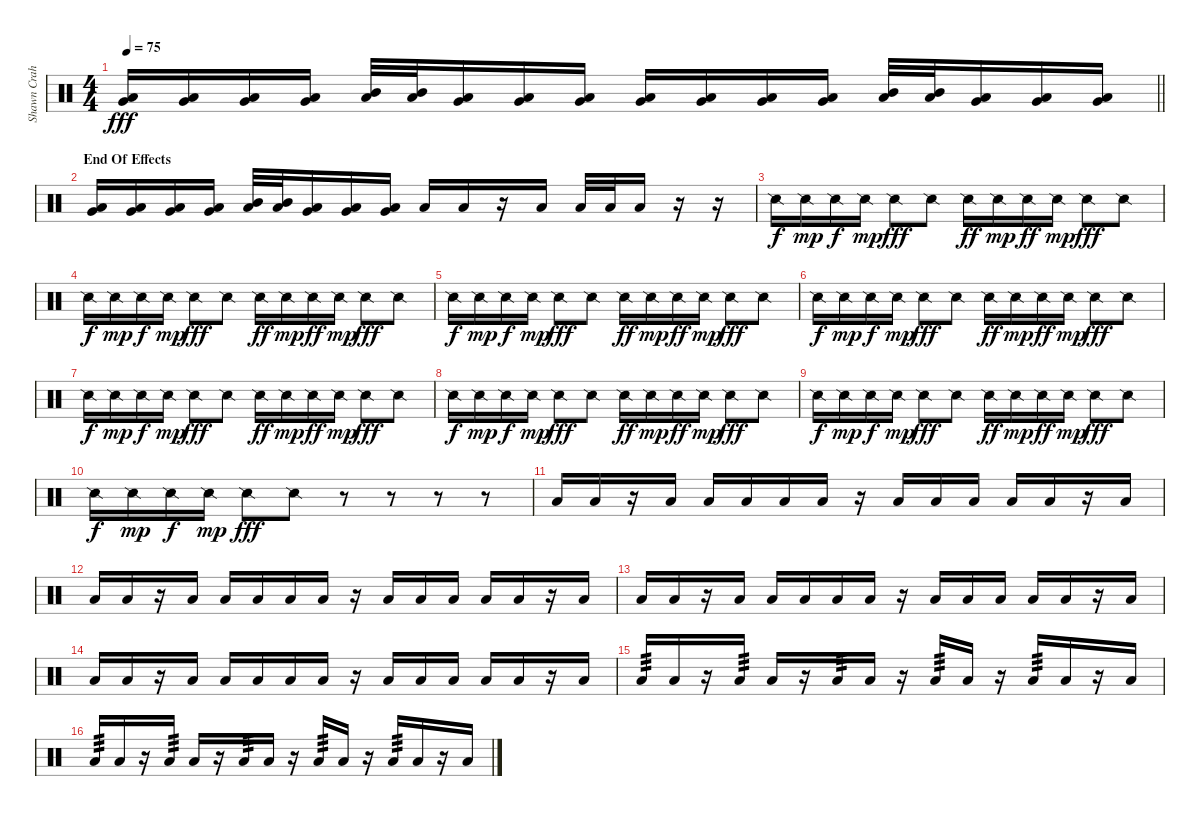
\track ("Shawn Crahan" "Shawn Crah") {instrument percussion}
\staff {score}
\articulation defaults
\ts (4 4)
\tempo 75
\clef neutral
\barLineRight lightlight
\ks c
("Very Low Tom (hit)" "Low Floor Tom (hit)").16{bd 60 dy fff} ("Very Low Tom (hit)" "Low Floor Tom (hit)").16{bd 60} ("Very Low Tom (hit)" "Low Floor Tom (hit)").16{bd 60} ("Very Low Tom (hit)" "Low Floor Tom (hit)").16{bd 60} ("Mid Tom (hit)" "Low Tom (hit)").32{bd 60} ("Mid Tom (hit)" "Low Tom (hit)").32{bd 60} ("Low Tom (hit)" "Very Low Tom (hit)").16{bd 60} ("Low Tom (hit)" "Very Low Tom (hit)").16{bd 60} ("Very Low Tom (hit)" "Low Floor Tom (hit)").16{bd 60} ("Very Low Tom (hit)" "Low Floor Tom (hit)").16{bd 60} ("Very Low Tom (hit)" "Low Floor Tom (hit)").16{bd 60} ("Very Low Tom (hit)" "Low Floor Tom (hit)").16{bd 60} ("Very Low Tom (hit)" "Low Floor Tom (hit)").16{bd 60} ("Mid Tom (hit)" "Low Tom (hit)").32{bd 60} ("Mid Tom (hit)" "Low Tom (hit)").32{bd 60} ("Low Tom (hit)" "Very Low Tom (hit)").16{bd 60} ("Low Tom (hit)" "Very Low Tom (hit)").16{bd 60} ("Very Low Tom (hit)" "Low Floor Tom (hit)").16{bd 60} |
\section ("" "End Of Effects")
("Very Low Tom (hit)" "Low Floor Tom (hit)").16{bd 60} ("Very Low Tom (hit)" "Low Floor Tom (hit)").16{bd 60} ("Very Low Tom (hit)" "Low Floor Tom (hit)").16{bd 60} ("Very Low Tom (hit)" "Low Floor Tom (hit)").16{bd 60} ("Mid Tom (hit)" "Low Tom (hit)").32{bd 60} ("Mid Tom (hit)" "Low Tom (hit)").32{bd 60} ("Low Tom (hit)" "Very Low Tom (hit)").16{bd 60} ("Low Tom (hit)" "Very Low Tom (hit)").16{bd 60} ("Very Low Tom (hit)" "Low Floor Tom (hit)").16{bd 60} "Low Floor Tom (hit)".16{bd 60} "Low Floor Tom (hit)".16{bd 60} r.16 "Low Floor Tom (hit)".16{bd 60} "Low Floor Tom (hit)".32{bd 60} "Low Floor Tom (hit)".32{bd 60} "Low Floor Tom (hit)".16{bd 60} r.16 r.16 |
"Snare (side stick) 2".16{dy f} "Snare (side stick) 2".16{dy mp} "Snare (side stick) 2".16{dy f} "Snare (side stick) 2".16{dy mp} "Snare (side stick) 2".8{dy fff} "Snare (side stick) 2".8 "Snare (side stick) 2".16{dy ff} "Snare (side stick) 2".16{dy mp} "Snare (side stick) 2".16{dy ff} "Snare (side stick) 2".16{dy mp} "Snare (side stick) 2".8{dy fff} "Snare (side stick) 2".8 |
"Snare (side stick) 2".16{dy f} "Snare (side stick) 2".16{dy mp} "Snare (side stick) 2".16{dy f} "Snare (side stick) 2".16{dy mp} "Snare (side stick) 2".8{dy fff} "Snare (side stick) 2".8 "Snare (side stick) 2".16{dy ff} "Snare (side stick) 2".16{dy mp} "Snare (side stick) 2".16{dy ff} "Snare (side stick) 2".16{dy mp} "Snare (side stick) 2".8{dy fff} "Snare (side stick) 2".8 |
"Snare (side stick) 2".16{dy f} "Snare (side stick) 2".16{dy mp} "Snare (side stick) 2".16{dy f} "Snare (side stick) 2".16{dy mp} "Snare (side stick) 2".8{dy fff} "Snare (side stick) 2".8 "Snare (side stick) 2".16{dy ff} "Snare (side stick) 2".16{dy mp} "Snare (side stick) 2".16{dy ff} "Snare (side stick) 2".16{dy mp} "Snare (side stick) 2".8{dy fff} "Snare (side stick) 2".8 |
"Snare (side stick) 2".16{dy f} "Snare (side stick) 2".16{dy mp} "Snare (side stick) 2".16{dy f} "Snare (side stick) 2".16{dy mp} "Snare (side stick) 2".8{dy fff} "Snare (side stick) 2".8 "Snare (side stick) 2".16{dy ff} "Snare (side stick) 2".16{dy mp} "Snare (side stick) 2".16{dy ff} "Snare (side stick) 2".16{dy mp} "Snare (side stick) 2".8{dy fff} "Snare (side stick) 2".8 |
"Snare (side stick) 2".16{dy f} "Snare (side stick) 2".16{dy mp} "Snare (side stick) 2".16{dy f} "Snare (side stick) 2".16{dy mp} "Snare (side stick) 2".8{dy fff} "Snare (side stick) 2".8 "Snare (side stick) 2".16{dy ff} "Snare (side stick) 2".16{dy mp} "Snare (side stick) 2".16{dy ff} "Snare (side stick) 2".16{dy mp} "Snare (side stick) 2".8{dy fff} "Snare (side stick) 2".8 |
"Snare (side stick) 2".16{dy f} "Snare (side stick) 2".16{dy mp} "Snare (side stick) 2".16{dy f} "Snare (side stick) 2".16{dy mp} "Snare (side stick) 2".8{dy fff} "Snare (side stick) 2".8 "Snare (side stick) 2".16{dy ff} "Snare (side stick) 2".16{dy mp} "Snare (side stick) 2".16{dy ff} "Snare (side stick) 2".16{dy mp} "Snare (side stick) 2".8{dy fff} "Snare (side stick) 2".8 |
"Snare (side stick) 2".16{dy f} "Snare (side stick) 2".16{dy mp} "Snare (side stick) 2".16{dy f} "Snare (side stick) 2".16{dy mp} "Snare (side stick) 2".8{dy fff} "Snare (side stick) 2".8 "Snare (side stick) 2".16{dy ff} "Snare (side stick) 2".16{dy mp} "Snare (side stick) 2".16{dy ff} "Snare (side stick) 2".16{dy mp} "Snare (side stick) 2".8{dy fff} "Snare (side stick) 2".8 |
"Snare (side stick) 2".16{dy f} "Snare (side stick) 2".16{dy mp} "Snare (side stick) 2".16{dy f} "Snare (side stick) 2".16{dy mp} "Snare (side stick) 2".8{dy fff} "Snare (side stick) 2".8 r.8 r.8 r.8 r.8 |
"Low Floor Tom (hit)".16 "Low Floor Tom (hit)".16 r.16 "Low Floor Tom (hit)".16 "Low Floor Tom (hit)".16 "Low Floor Tom (hit)".16 "Low Floor Tom (hit)".16 "Low Floor Tom (hit)".16 r.16 "Low Floor Tom (hit)".16 "Low Floor Tom (hit)".16 "Low Floor Tom (hit)".16 "Low Floor Tom (hit)".16 "Low Floor Tom (hit)".16 r.16 "Low Floor Tom (hit)".16 |
"Low Floor Tom (hit)".16 "Low Floor Tom (hit)".16 r.16 "Low Floor Tom (hit)".16 "Low Floor Tom (hit)".16 "Low Floor Tom (hit)".16 "Low Floor Tom (hit)".16 "Low Floor Tom (hit)".16 r.16 "Low Floor Tom (hit)".16 "Low Floor Tom (hit)".16 "Low Floor Tom (hit)".16 "Low Floor Tom (hit)".16 "Low Floor Tom (hit)".16 r.16 "Low Floor Tom (hit)".16 |
"Low Floor Tom (hit)".16 "Low Floor Tom (hit)".16 r.16 "Low Floor Tom (hit)".16 "Low Floor Tom (hit)".16 "Low Floor Tom (hit)".16 "Low Floor Tom (hit)".16 "Low Floor Tom (hit)".16 r.16 "Low Floor Tom (hit)".16 "Low Floor Tom (hit)".16 "Low Floor Tom (hit)".16 "Low Floor Tom (hit)".16 "Low Floor Tom (hit)".16 r.16 "Low Floor Tom (hit)".16 |
"Low Floor Tom (hit)".16 "Low Floor Tom (hit)".16 r.16 "Low Floor Tom (hit)".16 "Low Floor Tom (hit)".16 "Low Floor Tom (hit)".16 "Low Floor Tom (hit)".16 "Low Floor Tom (hit)".16 r.16 "Low Floor Tom (hit)".16 "Low Floor Tom (hit)".16 "Low Floor Tom (hit)".16 "Low Floor Tom (hit)".16 "Low Floor Tom (hit)".16 r.16 "Low Floor Tom (hit)".16 |
"Low Floor Tom (hit)".16{tp 3} "Low Floor Tom (hit)".16 r.16 "Low Floor Tom (hit)".16{tp 3} "Low Floor Tom (hit)".16 r.16 "Low Floor Tom (hit)".16{tp 3} "Low Floor Tom (hit)".16 r.16 "Low Floor Tom (hit)".16{tp 3} "Low Floor Tom (hit)".16 r.16 "Low Floor Tom (hit)".16{tp 3} "Low Floor Tom (hit)".16 r.16 "Low Floor Tom (hit)".16 |
"Low Floor Tom (hit)".16{tp 3} "Low Floor Tom (hit)".16 r.16 "Low Floor Tom (hit)".16{tp 3} "Low Floor Tom (hit)".16 r.16 "Low Floor Tom (hit)".16{tp 3} "Low Floor Tom (hit)".16 r.16 "Low Floor Tom (hit)".16{tp 3} "Low Floor Tom (hit)".16 r.16 "Low Floor Tom (hit)".16{tp 3} "Low Floor Tom (hit)".16 r.16 "Low Floor Tom (hit)".16
